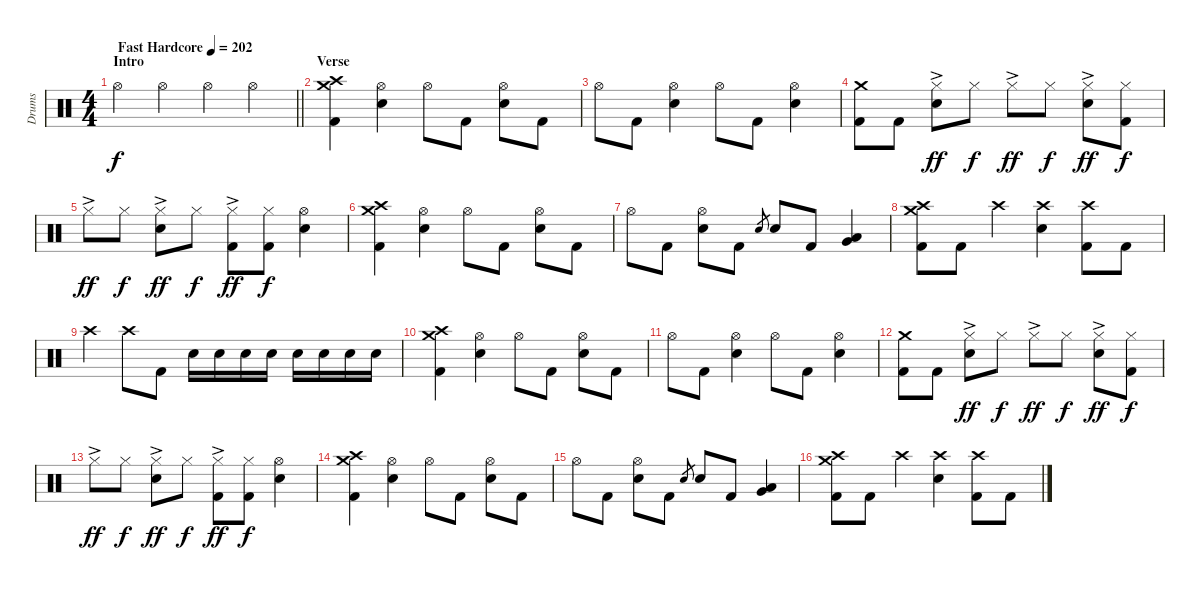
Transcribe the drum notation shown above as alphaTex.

\track ("Drums" "Drums") {instrument percussion}
\staff {score}
\articulation defaults
\ts (4 4)
\section ("" "Intro")
\tempo (202 "Fast Hardcore")
\clef neutral
\barLineRight lightlight
\ks c "Hi-Hat (open)".4{dy f} "Hi-Hat (open)".4 "Hi-Hat (open)".4 "Hi-Hat (open)".4
|
\section ("" "Verse")
("Crash medium (hit)" "Crash high (hit)" "Kick (hit) 2").4 ("Hi-Hat (open)" "Electric Snare (hit)").4 "Hi-Hat (open)".8 "Kick (hit) 2".8 ("Hi-Hat (open)" "Electric Snare (hit)").8 "Kick (hit) 2".8 |
"Hi-Hat (open)".8 "Kick (hit) 2".8 ("Hi-Hat (open)" "Electric Snare (hit)").4 "Hi-Hat (open)".8 "Kick (hit) 2".8 ("Hi-Hat (open)" "Electric Snare (hit)").4 |
("Crash medium (hit)" "Kick (hit) 2").8 "Kick (hit) 2".8 ("Hi-Hat (closed)"{ac} "Electric Snare (hit)").8{dy ff} "Hi-Hat (closed)".8{dy f} "Hi-Hat (closed)"{ac}.8{dy ff} "Hi-Hat (closed)".8{dy f} ("Hi-Hat (closed)"{ac} "Electric Snare (hit)").8{dy ff} ("Hi-Hat (closed)" "Kick (hit) 2").8{dy f} |
"Hi-Hat (closed)"{ac}.8{dy ff} "Hi-Hat (closed)".8{dy f} ("Hi-Hat (closed)"{ac} "Electric Snare (hit)").8{dy ff} "Hi-Hat (closed)".8{dy f} ("Hi-Hat (closed)"{ac} "Kick (hit) 2").8{dy ff} ("Hi-Hat (closed)" "Kick (hit) 2").8{dy f} ("Hi-Hat (open)" "Electric Snare (hit)").4 |
("Crash medium (hit)" "Crash high (hit)" "Kick (hit) 2").4 ("Hi-Hat (open)" "Electric Snare (hit)").4 "Hi-Hat (open)".8 "Kick (hit) 2".8 ("Hi-Hat (open)" "Electric Snare (hit)").8 "Kick (hit) 2".8 |
"Hi-Hat (open)".8 "Kick (hit) 2".8 ("Hi-Hat (open)" "Electric Snare (hit)").8 "Kick (hit) 2".8 "Electric Snare (hit)".8{gr} "Electric Snare (hit)".8 "Kick (hit) 2".8 ("Very Low Tom (hit)" "Low Floor Tom (hit)").4 |
("Crash medium (hit)" "Crash high (hit)" "Kick (hit) 2").8 "Kick (hit) 2".8 "Crash high (hit)".4 ("Crash high (hit)" "Electric Snare (hit)").4 ("Crash high (hit)" "Kick (hit) 2").8 "Kick (hit) 2".8 |
"Crash high (hit)".4 "Crash high (hit)".8 "Kick (hit) 2".8 "Electric Snare (hit)".16 "Electric Snare (hit)".16 "Electric Snare (hit)".16 "Electric Snare (hit)".16 "Electric Snare (hit)".16 "Electric Snare (hit)".16 "Electric Snare (hit)".16 "Electric Snare (hit)".16 |
("Crash medium (hit)" "Crash high (hit)" "Kick (hit) 2").4 ("Hi-Hat (open)" "Electric Snare (hit)").4 "Hi-Hat (open)".8 "Kick (hit) 2".8 ("Hi-Hat (open)" "Electric Snare (hit)").8 "Kick (hit) 2".8 |
"Hi-Hat (open)".8 "Kick (hit) 2".8 ("Hi-Hat (open)" "Electric Snare (hit)").4 "Hi-Hat (open)".8 "Kick (hit) 2".8 ("Hi-Hat (open)" "Electric Snare (hit)").4 |
("Crash medium (hit)" "Kick (hit) 2").8 "Kick (hit) 2".8 ("Hi-Hat (closed)"{ac} "Electric Snare (hit)").8{dy ff} "Hi-Hat (closed)".8{dy f} "Hi-Hat (closed)"{ac}.8{dy ff} "Hi-Hat (closed)".8{dy f} ("Hi-Hat (closed)"{ac} "Electric Snare (hit)").8{dy ff} ("Hi-Hat (closed)" "Kick (hit) 2").8{dy f} |
"Hi-Hat (closed)"{ac}.8{dy ff} "Hi-Hat (closed)".8{dy f} ("Hi-Hat (closed)"{ac} "Electric Snare (hit)").8{dy ff} "Hi-Hat (closed)".8{dy f} ("Hi-Hat (closed)"{ac} "Kick (hit) 2").8{dy ff} ("Hi-Hat (closed)" "Kick (hit) 2").8{dy f} ("Hi-Hat (open)" "Electric Snare (hit)").4 |
("Crash medium (hit)" "Crash high (hit)" "Kick (hit) 2").4 ("Hi-Hat (open)" "Electric Snare (hit)").4 "Hi-Hat (open)".8 "Kick (hit) 2".8 ("Hi-Hat (open)" "Electric Snare (hit)").8 "Kick (hit) 2".8 |
"Hi-Hat (open)".8 "Kick (hit) 2".8 ("Hi-Hat (open)" "Electric Snare (hit)").8 "Kick (hit) 2".8 "Electric Snare (hit)".8{gr} "Electric Snare (hit)".8 "Kick (hit) 2".8 ("Very Low Tom (hit)" "Low Floor Tom (hit)").4 |
("Crash medium (hit)" "Crash high (hit)" "Kick (hit) 2").8 "Kick (hit) 2".8 "Crash high (hit)".4 ("Crash high (hit)" "Electric Snare (hit)").4 ("Crash high (hit)" "Kick (hit) 2").8 "Kick (hit) 2".8
